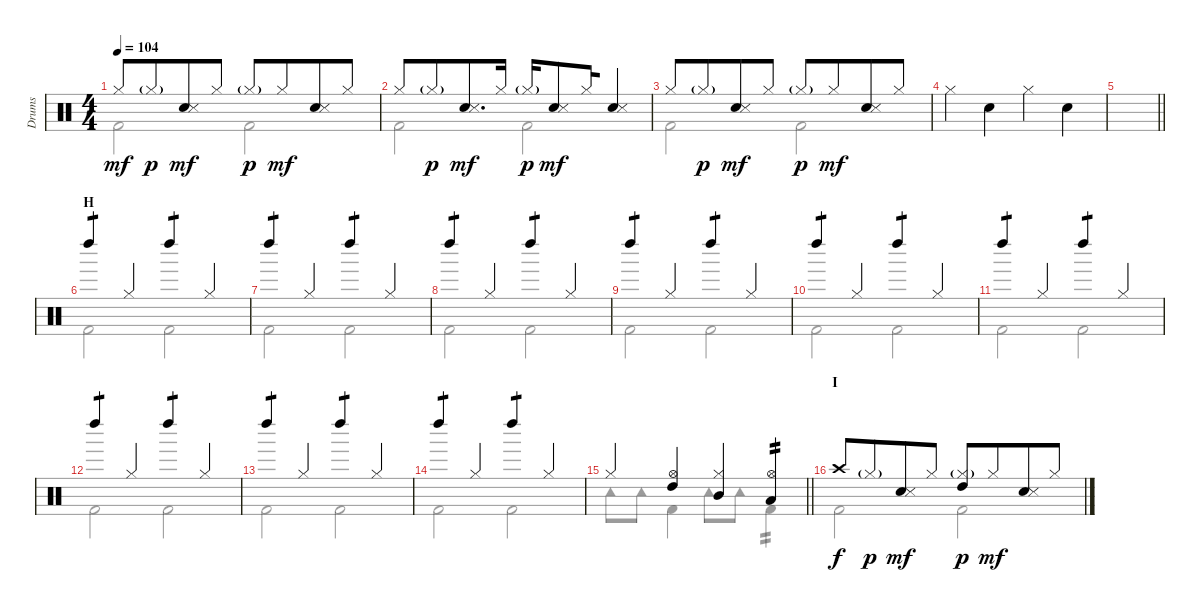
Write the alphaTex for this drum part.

\track ("Drums" "Drums") {instrument percussion}
\staff {score}
\articulation defaults
\voice
\ts (4 4)
\tempo 104
\clef neutral
\ks c "Hi-Hat (closed)".8{dy mf} "Hi-Hat (closed)"{g}.8{dy p beam merge}
("Electric Snare (hit)" "Snare (side stick) 3").8{dy mf} "Hi-Hat (closed)".8 "Hi-Hat (closed)"{g}.8{dy p} "Hi-Hat (closed)".8{dy mf beam merge} ("Electric Snare (hit)" "Snare (side stick) 3").8 "Hi-Hat (closed)".8 |
"Hi-Hat (closed)".8 "Hi-Hat (closed)"{g}.8{dy p beam merge} ("Electric Snare (hit)" "Snare (side stick) 3").8{d dy mf} "Hi-Hat (closed)".16 "Hi-Hat (closed)"{g}.16{dy p beam merge} ("Electric Snare (hit)" "Snare (side stick) 3").8{dy mf} "Hi-Hat (closed)".16{beam merge} ("Electric Snare (hit)" "Snare (side stick) 3").4 |
"Hi-Hat (closed)".8 "Hi-Hat (closed)"{g}.8{dy p beam merge} ("Electric Snare (hit)" "Snare (side stick) 3").8{dy mf} "Hi-Hat (closed)".8 "Hi-Hat (closed)"{g}.8{dy p} "Hi-Hat (closed)".8{dy mf beam merge} ("Electric Snare (hit)" "Snare (side stick) 3").8 "Hi-Hat (closed)".8 |
"Hi-Hat (closed)".4 "Electric Snare (hit)".4 "Hi-Hat (closed)".4 "Electric Snare (hit)".4 |
\barLineRight lightlight
|
\section ("" "H")
"Left Maraca (hit)".4{tp 1} "Hi-Hat (closed)".4 "Left Maraca (hit)".4{tp 1} "Hi-Hat (closed)".4 |
"Left Maraca (hit)".4{tp 1} "Hi-Hat (closed)".4 "Left Maraca (hit)".4{tp 1} "Hi-Hat (closed)".4 |
"Left Maraca (hit)".4{tp 1} "Hi-Hat (closed)".4 "Left Maraca (hit)".4{tp 1} "Hi-Hat (closed)".4 |
"Left Maraca (hit)".4{tp 1} "Hi-Hat (closed)".4 "Left Maraca (hit)".4{tp 1} "Hi-Hat (closed)".4 |
"Left Maraca (hit)".4{tp 1} "Hi-Hat (closed)".4 "Left Maraca (hit)".4{tp 1} "Hi-Hat (closed)".4 |
"Left Maraca (hit)".4{tp 1} "Hi-Hat (closed)".4 "Left Maraca (hit)".4{tp 1} "Hi-Hat (closed)".4 |
"Left Maraca (hit)".4{tp 1} "Hi-Hat (closed)".4 "Left Maraca (hit)".4{tp 1} "Hi-Hat (closed)".4 |
"Left Maraca (hit)".4{tp 1} "Hi-Hat (closed)".4 "Left Maraca (hit)".4{tp 1} "Hi-Hat (closed)".4 |
"Left Maraca (hit)".4{tp 1} "Hi-Hat (closed)".4 "Left Maraca (hit)".4{tp 1} "Hi-Hat (closed)".4 |
\barLineRight lightlight "Hi-Hat (closed)".4
("Hi-Hat (open)" "High Tom (hit)").4 ("Hi-Hat (closed)" "Mid Tom (hit)").4 ("Hi-Hat (open)" "Low Tom (hit)").4{tp 2} |
\section ("" "I")
"Crash high (hit)".8{dy f} "Hi-Hat (closed)"{g}.8{dy p beam merge} ("Electric Snare (hit)" "Snare (side stick) 3").8{dy mf} "Hi-Hat (closed)".8 ("Hi-Hat (closed)"{g} "High Tom (hit)").8{dy p} "Hi-Hat (closed)".8{dy mf beam merge} ("Electric Snare (hit)" "Snare (side stick) 3").8 "Hi-Hat (closed)".8
\voice
\clef neutral
\ottava regular
\simile none
\ks c "Kick (hit) 2".2{dy mf} "Kick (hit) 2".2
|
"Kick (hit) 2".2 "Kick (hit) 2".2 |
"Kick (hit) 2".2 "Kick (hit) 2".2 |
|
\barLineRight lightlight
|
"Kick (hit) 2".2 "Kick (hit) 2".2 |
"Kick (hit) 2".2 "Kick (hit) 2".2 |
"Kick (hit) 2".2 "Kick (hit) 2".2 |
"Kick (hit) 2".2 "Kick (hit) 2".2 |
"Kick (hit) 2".2 "Kick (hit) 2".2 |
"Kick (hit) 2".2 "Kick (hit) 2".2 |
"Kick (hit) 2".2 "Kick (hit) 2".2 |
"Kick (hit) 2".2 "Kick (hit) 2".2 |
"Kick (hit) 2".2 "Kick (hit) 2".2 |
\barLineRight lightlight "Tambourine (hit)".8 "Tambourine (hit)".8 "Kick (hit) 2".4 "Tambourine (hit)".8 "Tambourine (hit)".8 "Kick (hit) 2".4{tp 2}
|
"Kick (hit) 2".2 "Kick (hit) 2".2
